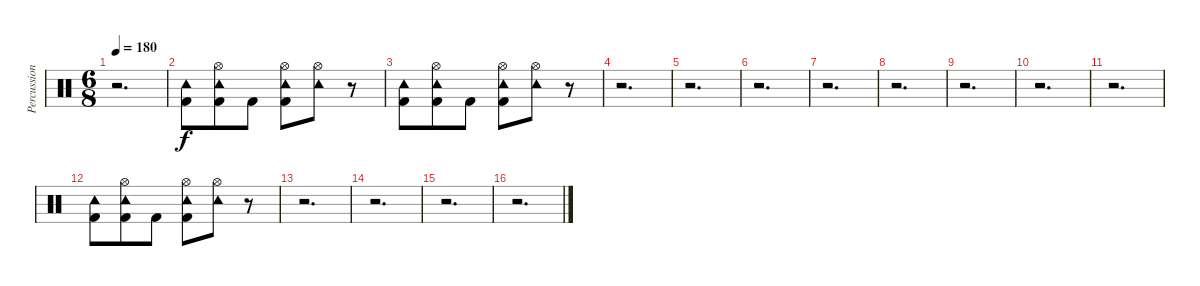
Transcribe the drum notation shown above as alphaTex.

\track ("Percussion" "Percussion") {instrument percussion}
\staff {score}
\articulation defaults
\ts (6 8)
\tempo 180
\clef neutral
\ks c
r.2{d dy f} |
("Kick (hit) 2" "Tambourine (hit)").8 ("Kick (hit) 2" "Hi-Hat (open)" "Tambourine (hit)").8 "Kick (hit) 2".8 ("Kick (hit) 2" "Hi-Hat (open)" "Tambourine (hit)").8 ("Hi-Hat (open)" "Tambourine (hit)").8 r.8 |
("Kick (hit) 2" "Tambourine (hit)").8 ("Kick (hit) 2" "Hi-Hat (open)" "Tambourine (hit)").8 "Kick (hit) 2".8 ("Kick (hit) 2" "Hi-Hat (open)" "Tambourine (hit)").8 ("Hi-Hat (open)" "Tambourine (hit)").8 r.8 |
r.2{d} |
r.2{d} |
r.2{d} |
r.2{d} |
r.2{d} |
r.2{d} |
r.2{d} |
r.2{d} |
("Kick (hit) 2" "Tambourine (hit)").8 ("Kick (hit) 2" "Hi-Hat (open)" "Tambourine (hit)").8 "Kick (hit) 2".8 ("Kick (hit) 2" "Hi-Hat (open)" "Tambourine (hit)").8 ("Hi-Hat (open)" "Tambourine (hit)").8 r.8 |
r.2{d} |
r.2{d} |
r.2{d} |
r.2{d}
